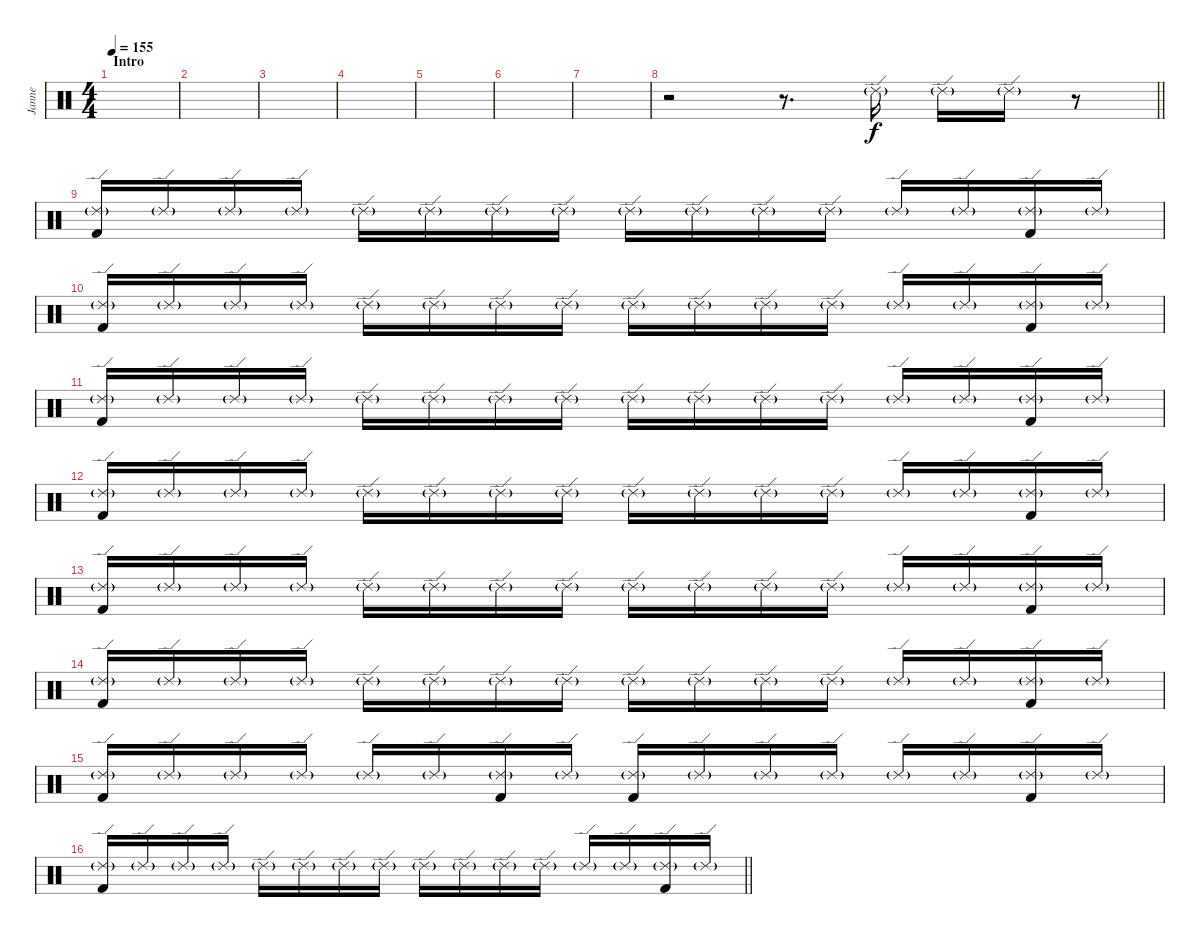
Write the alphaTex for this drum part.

\track ("Janne" "Janne") {instrument percussion}
\staff {score}
\articulation defaults
\ts (4 4)
\section ("" "Intro")
\tempo 155
\clef neutral
\ks c
|
|
|
|
|
|
|
\barLineRight lightlight
r.2 r.8{d} "Ride (edge) 2"{g}.16 "Ride (edge) 2"{g}.16 "Ride (edge) 2"{g}.16 r.8 |
\section ("" "")
("Kick (hit) 2" "Ride (edge) 2"{g}).16 "Ride (edge) 2"{g}.16 "Ride (edge) 2"{g}.16 "Ride (edge) 2"{g}.16 "Ride (edge) 2"{g}.16 "Ride (edge) 2"{g}.16 "Ride (edge) 2"{g}.16 "Ride (edge) 2"{g}.16 "Ride (edge) 2"{g}.16 "Ride (edge) 2"{g}.16 "Ride (edge) 2"{g}.16 "Ride (edge) 2"{g}.16 "Ride (edge) 2"{g}.16 "Ride (edge) 2"{g}.16 ("Kick (hit) 2" "Ride (edge) 2"{g}).16 "Ride (edge) 2"{g}.16 |
("Kick (hit) 2" "Ride (edge) 2"{g}).16 "Ride (edge) 2"{g}.16 "Ride (edge) 2"{g}.16 "Ride (edge) 2"{g}.16 "Ride (edge) 2"{g}.16 "Ride (edge) 2"{g}.16 "Ride (edge) 2"{g}.16 "Ride (edge) 2"{g}.16 "Ride (edge) 2"{g}.16 "Ride (edge) 2"{g}.16 "Ride (edge) 2"{g}.16 "Ride (edge) 2"{g}.16 "Ride (edge) 2"{g}.16 "Ride (edge) 2"{g}.16 ("Kick (hit) 2" "Ride (edge) 2"{g}).16 "Ride (edge) 2"{g}.16 |
("Kick (hit) 2" "Ride (edge) 2"{g}).16 "Ride (edge) 2"{g}.16 "Ride (edge) 2"{g}.16 "Ride (edge) 2"{g}.16 "Ride (edge) 2"{g}.16 "Ride (edge) 2"{g}.16 "Ride (edge) 2"{g}.16 "Ride (edge) 2"{g}.16 "Ride (edge) 2"{g}.16 "Ride (edge) 2"{g}.16 "Ride (edge) 2"{g}.16 "Ride (edge) 2"{g}.16 "Ride (edge) 2"{g}.16 "Ride (edge) 2"{g}.16 ("Kick (hit) 2" "Ride (edge) 2"{g}).16 "Ride (edge) 2"{g}.16 |
("Kick (hit) 2" "Ride (edge) 2"{g}).16 "Ride (edge) 2"{g}.16 "Ride (edge) 2"{g}.16 "Ride (edge) 2"{g}.16 "Ride (edge) 2"{g}.16 "Ride (edge) 2"{g}.16 "Ride (edge) 2"{g}.16 "Ride (edge) 2"{g}.16 "Ride (edge) 2"{g}.16 "Ride (edge) 2"{g}.16 "Ride (edge) 2"{g}.16 "Ride (edge) 2"{g}.16 "Ride (edge) 2"{g}.16 "Ride (edge) 2"{g}.16 ("Kick (hit) 2" "Ride (edge) 2"{g}).16 "Ride (edge) 2"{g}.16 |
("Kick (hit) 2" "Ride (edge) 2"{g}).16 "Ride (edge) 2"{g}.16 "Ride (edge) 2"{g}.16 "Ride (edge) 2"{g}.16 "Ride (edge) 2"{g}.16 "Ride (edge) 2"{g}.16 "Ride (edge) 2"{g}.16 "Ride (edge) 2"{g}.16 "Ride (edge) 2"{g}.16 "Ride (edge) 2"{g}.16 "Ride (edge) 2"{g}.16 "Ride (edge) 2"{g}.16 "Ride (edge) 2"{g}.16 "Ride (edge) 2"{g}.16 ("Kick (hit) 2" "Ride (edge) 2"{g}).16 "Ride (edge) 2"{g}.16 |
("Kick (hit) 2" "Ride (edge) 2"{g}).16 "Ride (edge) 2"{g}.16 "Ride (edge) 2"{g}.16 "Ride (edge) 2"{g}.16 "Ride (edge) 2"{g}.16 "Ride (edge) 2"{g}.16 "Ride (edge) 2"{g}.16 "Ride (edge) 2"{g}.16 "Ride (edge) 2"{g}.16 "Ride (edge) 2"{g}.16 "Ride (edge) 2"{g}.16 "Ride (edge) 2"{g}.16 "Ride (edge) 2"{g}.16 "Ride (edge) 2"{g}.16 ("Kick (hit) 2" "Ride (edge) 2"{g}).16 "Ride (edge) 2"{g}.16 |
("Kick (hit) 2" "Ride (edge) 2"{g}).16 "Ride (edge) 2"{g}.16 "Ride (edge) 2"{g}.16 "Ride (edge) 2"{g}.16 "Ride (edge) 2"{g}.16 "Ride (edge) 2"{g}.16 ("Kick (hit) 2" "Ride (edge) 2"{g}).16 "Ride (edge) 2"{g}.16 ("Kick (hit) 2" "Ride (edge) 2"{g}).16 "Ride (edge) 2"{g}.16 "Ride (edge) 2"{g}.16 "Ride (edge) 2"{g}.16 "Ride (edge) 2"{g}.16 "Ride (edge) 2"{g}.16 ("Kick (hit) 2" "Ride (edge) 2"{g}).16 "Ride (edge) 2"{g}.16 |
\barLineRight lightlight
("Kick (hit) 2" "Ride (edge) 2"{g}).16 "Ride (edge) 2"{g}.16 "Ride (edge) 2"{g}.16 "Ride (edge) 2"{g}.16 "Ride (edge) 2"{g}.16 "Ride (edge) 2"{g}.16 "Ride (edge) 2"{g}.16 "Ride (edge) 2"{g}.16 "Ride (edge) 2"{g}.16 "Ride (edge) 2"{g}.16 "Ride (edge) 2"{g}.16 "Ride (edge) 2"{g}.16 "Ride (edge) 2"{g}.16 "Ride (edge) 2"{g}.16 ("Kick (hit) 2" "Ride (edge) 2"{g}).16 "Ride (edge) 2"{g}.16
